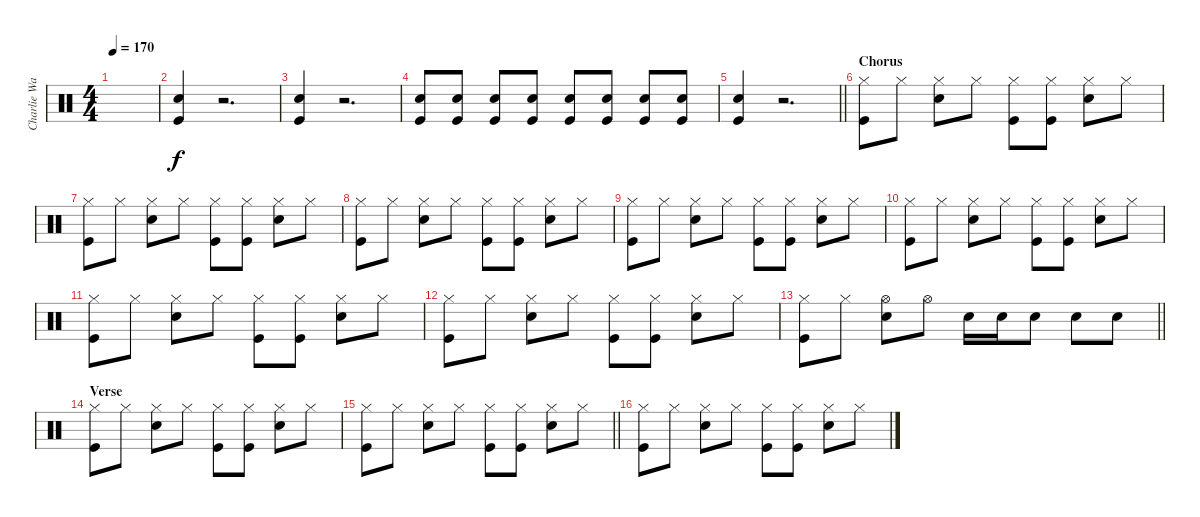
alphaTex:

\track ("Charlie Watts" "Charlie Wa") {instrument percussion}
\staff {score}
\articulation defaults
\ts (4 4)
\tempo 170
\clef neutral
\ks c
|
("Snare (hit) 2" "Kick (hit)").4 r.2{d} |
("Snare (hit) 2" "Kick (hit)").4 r.2{d} |
("Snare (hit) 2" "Kick (hit)").8 ("Snare (hit) 2" "Kick (hit)").8 ("Snare (hit) 2" "Kick (hit)").8 ("Snare (hit) 2" "Kick (hit)").8 ("Snare (hit) 2" "Kick (hit)").8 ("Snare (hit) 2" "Kick (hit)").8 ("Snare (hit) 2" "Kick (hit)").8 ("Snare (hit) 2" "Kick (hit)").8 |
\barLineRight lightlight
("Snare (hit) 2" "Kick (hit)").4 r.2{d} |
\section ("" "Chorus")
("Hi-Hat (closed)" "Kick (hit)").8 "Hi-Hat (closed)".8 ("Hi-Hat (closed)" "Snare (hit) 2").8 "Hi-Hat (closed)".8 ("Hi-Hat (closed)" "Kick (hit)").8 ("Hi-Hat (closed)" "Kick (hit)").8 ("Hi-Hat (closed)" "Snare (hit) 2").8 "Hi-Hat (closed)".8 |
("Hi-Hat (closed)" "Kick (hit)").8 "Hi-Hat (closed)".8 ("Hi-Hat (closed)" "Snare (hit) 2").8 "Hi-Hat (closed)".8 ("Hi-Hat (closed)" "Kick (hit)").8 ("Hi-Hat (closed)" "Kick (hit)").8 ("Hi-Hat (closed)" "Snare (hit) 2").8 "Hi-Hat (closed)".8 |
("Hi-Hat (closed)" "Kick (hit)").8 "Hi-Hat (closed)".8 ("Hi-Hat (closed)" "Snare (hit) 2").8 "Hi-Hat (closed)".8 ("Hi-Hat (closed)" "Kick (hit)").8 ("Hi-Hat (closed)" "Kick (hit)").8 ("Hi-Hat (closed)" "Snare (hit) 2").8 "Hi-Hat (closed)".8 |
("Hi-Hat (closed)" "Kick (hit)").8 "Hi-Hat (closed)".8 ("Hi-Hat (closed)" "Snare (hit) 2").8 "Hi-Hat (closed)".8 ("Hi-Hat (closed)" "Kick (hit)").8 ("Hi-Hat (closed)" "Kick (hit)").8 ("Hi-Hat (closed)" "Snare (hit) 2").8 "Hi-Hat (closed)".8 |
("Hi-Hat (closed)" "Kick (hit)").8 "Hi-Hat (closed)".8 ("Hi-Hat (closed)" "Snare (hit) 2").8 "Hi-Hat (closed)".8 ("Hi-Hat (closed)" "Kick (hit)").8 ("Hi-Hat (closed)" "Kick (hit)").8 ("Hi-Hat (closed)" "Snare (hit) 2").8 "Hi-Hat (closed)".8 |
("Hi-Hat (closed)" "Kick (hit)").8 "Hi-Hat (closed)".8 ("Hi-Hat (closed)" "Snare (hit) 2").8 "Hi-Hat (closed)".8 ("Hi-Hat (closed)" "Kick (hit)").8 ("Hi-Hat (closed)" "Kick (hit)").8 ("Hi-Hat (closed)" "Snare (hit) 2").8 "Hi-Hat (closed)".8 |
("Hi-Hat (closed)" "Kick (hit)").8 "Hi-Hat (closed)".8 ("Hi-Hat (closed)" "Snare (hit) 2").8 "Hi-Hat (closed)".8 ("Hi-Hat (closed)" "Kick (hit)").8 ("Hi-Hat (closed)" "Kick (hit)").8 ("Hi-Hat (closed)" "Snare (hit) 2").8 "Hi-Hat (closed)".8 |
\barLineRight lightlight
("Hi-Hat (closed)" "Kick (hit)").8 "Hi-Hat (closed)".8 ("Hi-Hat (open)" "Snare (hit) 2").8 "Hi-Hat (open)".8 "Snare (hit) 2".16 "Snare (hit) 2".16 "Snare (hit) 2".8 "Snare (hit) 2".8 "Snare (hit) 2".8 |
\section ("" "Verse")
("Hi-Hat (closed)" "Kick (hit)").8 "Hi-Hat (closed)".8 ("Hi-Hat (closed)" "Snare (hit) 2").8 "Hi-Hat (closed)".8 ("Hi-Hat (closed)" "Kick (hit)").8 ("Hi-Hat (closed)" "Kick (hit)").8 ("Hi-Hat (closed)" "Snare (hit) 2").8 "Hi-Hat (closed)".8 |
\barLineRight lightlight
("Hi-Hat (closed)" "Kick (hit)").8 "Hi-Hat (closed)".8 ("Hi-Hat (closed)" "Snare (hit) 2").8 "Hi-Hat (closed)".8 ("Hi-Hat (closed)" "Kick (hit)").8 ("Hi-Hat (closed)" "Kick (hit)").8 ("Hi-Hat (closed)" "Snare (hit) 2").8 "Hi-Hat (closed)".8 |
("Hi-Hat (closed)" "Kick (hit)").8 "Hi-Hat (closed)".8 ("Hi-Hat (closed)" "Snare (hit) 2").8 "Hi-Hat (closed)".8 ("Hi-Hat (closed)" "Kick (hit)").8 ("Hi-Hat (closed)" "Kick (hit)").8 ("Hi-Hat (closed)" "Snare (hit) 2").8 "Hi-Hat (closed)".8
